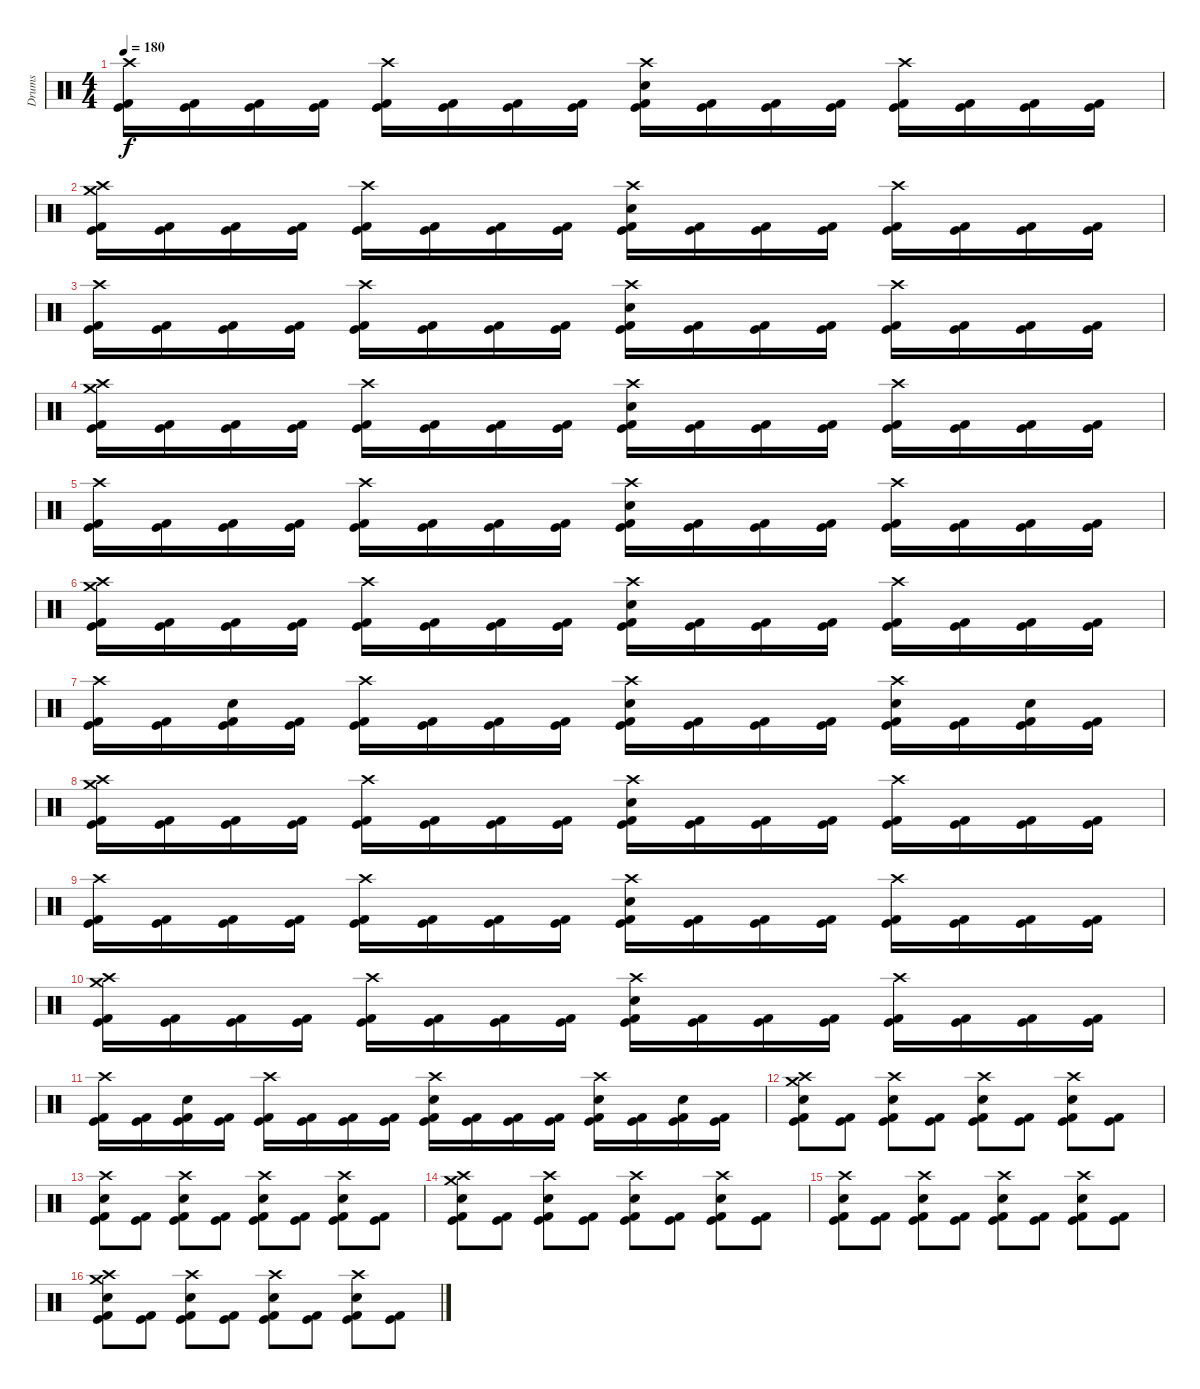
\track ("Drums" "Drums") {instrument percussion}
\staff {score}
\articulation defaults
\ts (4 4)
\tempo 180
\clef neutral
\ks c
("Crash high (hit)" "Kick (hit)" "Kick (hit) 2").16{dy f} ("Kick (hit)" "Kick (hit) 2").16 ("Kick (hit)" "Kick (hit) 2").16 ("Kick (hit)" "Kick (hit) 2").16 ("Crash high (hit)" "Kick (hit)" "Kick (hit) 2").16 ("Kick (hit)" "Kick (hit) 2").16 ("Kick (hit)" "Kick (hit) 2").16 ("Kick (hit)" "Kick (hit) 2").16 ("Crash high (hit)" "Snare (hit) 2" "Kick (hit)" "Kick (hit) 2").16 ("Kick (hit)" "Kick (hit) 2").16 ("Kick (hit)" "Kick (hit) 2").16 ("Kick (hit)" "Kick (hit) 2").16 ("Crash high (hit)" "Kick (hit)" "Kick (hit) 2").16 ("Kick (hit)" "Kick (hit) 2").16 ("Kick (hit)" "Kick (hit) 2").16 ("Kick (hit)" "Kick (hit) 2").16 |
("Crash medium (hit)" "Crash high (hit)" "Kick (hit)" "Kick (hit) 2").16 ("Kick (hit)" "Kick (hit) 2").16 ("Kick (hit)" "Kick (hit) 2").16 ("Kick (hit)" "Kick (hit) 2").16 ("Crash high (hit)" "Kick (hit)" "Kick (hit) 2").16 ("Kick (hit)" "Kick (hit) 2").16 ("Kick (hit)" "Kick (hit) 2").16 ("Kick (hit)" "Kick (hit) 2").16 ("Crash high (hit)" "Snare (hit) 2" "Kick (hit)" "Kick (hit) 2").16 ("Kick (hit)" "Kick (hit) 2").16 ("Kick (hit)" "Kick (hit) 2").16 ("Kick (hit)" "Kick (hit) 2").16 ("Crash high (hit)" "Kick (hit)" "Kick (hit) 2").16 ("Kick (hit)" "Kick (hit) 2").16 ("Kick (hit)" "Kick (hit) 2").16 ("Kick (hit)" "Kick (hit) 2").16 |
("Crash high (hit)" "Kick (hit)" "Kick (hit) 2").16 ("Kick (hit)" "Kick (hit) 2").16 ("Kick (hit)" "Kick (hit) 2").16 ("Kick (hit)" "Kick (hit) 2").16 ("Crash high (hit)" "Kick (hit)" "Kick (hit) 2").16 ("Kick (hit)" "Kick (hit) 2").16 ("Kick (hit)" "Kick (hit) 2").16 ("Kick (hit)" "Kick (hit) 2").16 ("Crash high (hit)" "Snare (hit) 2" "Kick (hit)" "Kick (hit) 2").16 ("Kick (hit)" "Kick (hit) 2").16 ("Kick (hit)" "Kick (hit) 2").16 ("Kick (hit)" "Kick (hit) 2").16 ("Crash high (hit)" "Kick (hit)" "Kick (hit) 2").16 ("Kick (hit)" "Kick (hit) 2").16 ("Kick (hit)" "Kick (hit) 2").16 ("Kick (hit)" "Kick (hit) 2").16 |
("Crash medium (hit)" "Crash high (hit)" "Kick (hit)" "Kick (hit) 2").16 ("Kick (hit)" "Kick (hit) 2").16 ("Kick (hit)" "Kick (hit) 2").16 ("Kick (hit)" "Kick (hit) 2").16 ("Crash high (hit)" "Kick (hit)" "Kick (hit) 2").16 ("Kick (hit)" "Kick (hit) 2").16 ("Kick (hit)" "Kick (hit) 2").16 ("Kick (hit)" "Kick (hit) 2").16 ("Crash high (hit)" "Snare (hit) 2" "Kick (hit)" "Kick (hit) 2").16 ("Kick (hit)" "Kick (hit) 2").16 ("Kick (hit)" "Kick (hit) 2").16 ("Kick (hit)" "Kick (hit) 2").16 ("Crash high (hit)" "Kick (hit)" "Kick (hit) 2").16 ("Kick (hit)" "Kick (hit) 2").16 ("Kick (hit)" "Kick (hit) 2").16 ("Kick (hit)" "Kick (hit) 2").16 |
("Crash high (hit)" "Kick (hit)" "Kick (hit) 2").16 ("Kick (hit)" "Kick (hit) 2").16 ("Kick (hit)" "Kick (hit) 2").16 ("Kick (hit)" "Kick (hit) 2").16 ("Crash high (hit)" "Kick (hit)" "Kick (hit) 2").16 ("Kick (hit)" "Kick (hit) 2").16 ("Kick (hit)" "Kick (hit) 2").16 ("Kick (hit)" "Kick (hit) 2").16 ("Crash high (hit)" "Snare (hit) 2" "Kick (hit)" "Kick (hit) 2").16 ("Kick (hit)" "Kick (hit) 2").16 ("Kick (hit)" "Kick (hit) 2").16 ("Kick (hit)" "Kick (hit) 2").16 ("Crash high (hit)" "Kick (hit)" "Kick (hit) 2").16 ("Kick (hit)" "Kick (hit) 2").16 ("Kick (hit)" "Kick (hit) 2").16 ("Kick (hit)" "Kick (hit) 2").16 |
("Crash medium (hit)" "Crash high (hit)" "Kick (hit)" "Kick (hit) 2").16 ("Kick (hit)" "Kick (hit) 2").16 ("Kick (hit)" "Kick (hit) 2").16 ("Kick (hit)" "Kick (hit) 2").16 ("Crash high (hit)" "Kick (hit)" "Kick (hit) 2").16 ("Kick (hit)" "Kick (hit) 2").16 ("Kick (hit)" "Kick (hit) 2").16 ("Kick (hit)" "Kick (hit) 2").16 ("Crash high (hit)" "Snare (hit) 2" "Kick (hit)" "Kick (hit) 2").16 ("Kick (hit)" "Kick (hit) 2").16 ("Kick (hit)" "Kick (hit) 2").16 ("Kick (hit)" "Kick (hit) 2").16 ("Crash high (hit)" "Kick (hit)" "Kick (hit) 2").16 ("Kick (hit)" "Kick (hit) 2").16 ("Kick (hit)" "Kick (hit) 2").16 ("Kick (hit)" "Kick (hit) 2").16 |
("Crash high (hit)" "Kick (hit)" "Kick (hit) 2").16 ("Kick (hit)" "Kick (hit) 2").16 ("Snare (hit) 2" "Kick (hit)" "Kick (hit) 2").16 ("Kick (hit)" "Kick (hit) 2").16 ("Crash high (hit)" "Kick (hit)" "Kick (hit) 2").16 ("Kick (hit)" "Kick (hit) 2").16 ("Kick (hit)" "Kick (hit) 2").16 ("Kick (hit)" "Kick (hit) 2").16 ("Crash high (hit)" "Snare (hit) 2" "Kick (hit)" "Kick (hit) 2").16 ("Kick (hit)" "Kick (hit) 2").16 ("Kick (hit)" "Kick (hit) 2").16 ("Kick (hit)" "Kick (hit) 2").16 ("Crash high (hit)" "Snare (hit) 2" "Kick (hit)" "Kick (hit) 2").16 ("Kick (hit)" "Kick (hit) 2").16 ("Snare (hit) 2" "Kick (hit)" "Kick (hit) 2").16 ("Kick (hit)" "Kick (hit) 2").16 |
("Crash medium (hit)" "Crash high (hit)" "Kick (hit)" "Kick (hit) 2").16 ("Kick (hit)" "Kick (hit) 2").16 ("Kick (hit)" "Kick (hit) 2").16 ("Kick (hit)" "Kick (hit) 2").16 ("Crash high (hit)" "Kick (hit)" "Kick (hit) 2").16 ("Kick (hit)" "Kick (hit) 2").16 ("Kick (hit)" "Kick (hit) 2").16 ("Kick (hit)" "Kick (hit) 2").16 ("Crash high (hit)" "Snare (hit) 2" "Kick (hit)" "Kick (hit) 2").16 ("Kick (hit)" "Kick (hit) 2").16 ("Kick (hit)" "Kick (hit) 2").16 ("Kick (hit)" "Kick (hit) 2").16 ("Crash high (hit)" "Kick (hit)" "Kick (hit) 2").16 ("Kick (hit)" "Kick (hit) 2").16 ("Kick (hit)" "Kick (hit) 2").16 ("Kick (hit)" "Kick (hit) 2").16 |
("Crash high (hit)" "Kick (hit)" "Kick (hit) 2").16 ("Kick (hit)" "Kick (hit) 2").16 ("Kick (hit)" "Kick (hit) 2").16 ("Kick (hit)" "Kick (hit) 2").16 ("Crash high (hit)" "Kick (hit)" "Kick (hit) 2").16 ("Kick (hit)" "Kick (hit) 2").16 ("Kick (hit)" "Kick (hit) 2").16 ("Kick (hit)" "Kick (hit) 2").16 ("Crash high (hit)" "Snare (hit) 2" "Kick (hit)" "Kick (hit) 2").16 ("Kick (hit)" "Kick (hit) 2").16 ("Kick (hit)" "Kick (hit) 2").16 ("Kick (hit)" "Kick (hit) 2").16 ("Crash high (hit)" "Kick (hit)" "Kick (hit) 2").16 ("Kick (hit)" "Kick (hit) 2").16 ("Kick (hit)" "Kick (hit) 2").16 ("Kick (hit)" "Kick (hit) 2").16 |
("Crash medium (hit)" "Crash high (hit)" "Kick (hit)" "Kick (hit) 2").16 ("Kick (hit)" "Kick (hit) 2").16 ("Kick (hit)" "Kick (hit) 2").16 ("Kick (hit)" "Kick (hit) 2").16 ("Crash high (hit)" "Kick (hit)" "Kick (hit) 2").16 ("Kick (hit)" "Kick (hit) 2").16 ("Kick (hit)" "Kick (hit) 2").16 ("Kick (hit)" "Kick (hit) 2").16 ("Crash high (hit)" "Snare (hit) 2" "Kick (hit)" "Kick (hit) 2").16 ("Kick (hit)" "Kick (hit) 2").16 ("Kick (hit)" "Kick (hit) 2").16 ("Kick (hit)" "Kick (hit) 2").16 ("Crash high (hit)" "Kick (hit)" "Kick (hit) 2").16 ("Kick (hit)" "Kick (hit) 2").16 ("Kick (hit)" "Kick (hit) 2").16 ("Kick (hit)" "Kick (hit) 2").16 |
("Crash high (hit)" "Kick (hit)" "Kick (hit) 2").16 ("Kick (hit)" "Kick (hit) 2").16 ("Snare (hit) 2" "Kick (hit)" "Kick (hit) 2").16 ("Kick (hit)" "Kick (hit) 2").16 ("Crash high (hit)" "Kick (hit)" "Kick (hit) 2").16 ("Kick (hit)" "Kick (hit) 2").16 ("Kick (hit)" "Kick (hit) 2").16 ("Kick (hit)" "Kick (hit) 2").16 ("Crash high (hit)" "Snare (hit) 2" "Kick (hit)" "Kick (hit) 2").16 ("Kick (hit)" "Kick (hit) 2").16 ("Kick (hit)" "Kick (hit) 2").16 ("Kick (hit)" "Kick (hit) 2").16 ("Crash high (hit)" "Snare (hit) 2" "Kick (hit)" "Kick (hit) 2").16 ("Kick (hit)" "Kick (hit) 2").16 ("Snare (hit) 2" "Kick (hit)" "Kick (hit) 2").16 ("Kick (hit)" "Kick (hit) 2").16 |
("Crash medium (hit)" "Crash high (hit)" "Snare (hit) 2" "Kick (hit)" "Kick (hit) 2").8 ("Kick (hit)" "Kick (hit) 2").8 ("Crash high (hit)" "Snare (hit) 2" "Kick (hit)" "Kick (hit) 2").8 ("Kick (hit)" "Kick (hit) 2").8 ("Crash high (hit)" "Snare (hit) 2" "Kick (hit)" "Kick (hit) 2").8 ("Kick (hit)" "Kick (hit) 2").8 ("Crash high (hit)" "Snare (hit) 2" "Kick (hit)" "Kick (hit) 2").8 ("Kick (hit)" "Kick (hit) 2").8 |
("Crash high (hit)" "Snare (hit) 2" "Kick (hit)" "Kick (hit) 2").8 ("Kick (hit)" "Kick (hit) 2").8 ("Crash high (hit)" "Snare (hit) 2" "Kick (hit)" "Kick (hit) 2").8 ("Kick (hit)" "Kick (hit) 2").8 ("Crash high (hit)" "Snare (hit) 2" "Kick (hit)" "Kick (hit) 2").8 ("Kick (hit)" "Kick (hit) 2").8 ("Crash high (hit)" "Snare (hit) 2" "Kick (hit)" "Kick (hit) 2").8 ("Kick (hit)" "Kick (hit) 2").8 |
("Crash medium (hit)" "Crash high (hit)" "Snare (hit) 2" "Kick (hit)" "Kick (hit) 2").8 ("Kick (hit)" "Kick (hit) 2").8 ("Crash high (hit)" "Snare (hit) 2" "Kick (hit)" "Kick (hit) 2").8 ("Kick (hit)" "Kick (hit) 2").8 ("Crash high (hit)" "Snare (hit) 2" "Kick (hit)" "Kick (hit) 2").8 ("Kick (hit)" "Kick (hit) 2").8 ("Crash high (hit)" "Snare (hit) 2" "Kick (hit)" "Kick (hit) 2").8 ("Kick (hit)" "Kick (hit) 2").8 |
("Crash high (hit)" "Snare (hit) 2" "Kick (hit)" "Kick (hit) 2").8 ("Kick (hit)" "Kick (hit) 2").8 ("Crash high (hit)" "Snare (hit) 2" "Kick (hit)" "Kick (hit) 2").8 ("Kick (hit)" "Kick (hit) 2").8 ("Crash high (hit)" "Snare (hit) 2" "Kick (hit)" "Kick (hit) 2").8 ("Kick (hit)" "Kick (hit) 2").8 ("Crash high (hit)" "Snare (hit) 2" "Kick (hit)" "Kick (hit) 2").8 ("Kick (hit)" "Kick (hit) 2").8 |
("Crash medium (hit)" "Crash high (hit)" "Snare (hit) 2" "Kick (hit)" "Kick (hit) 2").8 ("Kick (hit)" "Kick (hit) 2").8 ("Crash high (hit)" "Snare (hit) 2" "Kick (hit)" "Kick (hit) 2").8 ("Kick (hit)" "Kick (hit) 2").8 ("Crash high (hit)" "Snare (hit) 2" "Kick (hit)" "Kick (hit) 2").8 ("Kick (hit)" "Kick (hit) 2").8 ("Crash high (hit)" "Snare (hit) 2" "Kick (hit)" "Kick (hit) 2").8 ("Kick (hit)" "Kick (hit) 2").8
